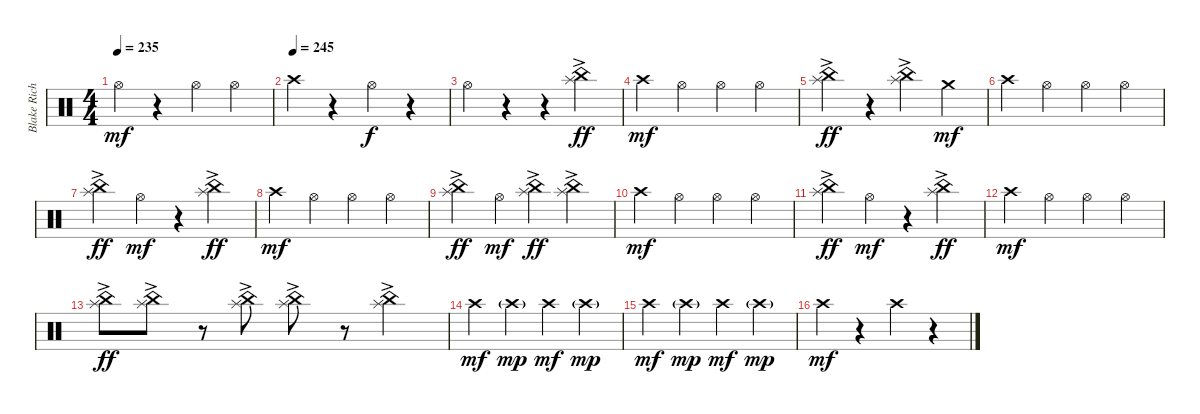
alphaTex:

\track ("Blake Richardson Drums" "Blake Rich") {instrument percussion}
\staff {score}
\articulation defaults
\ts (4 4)
\tempo 235
\clef neutral
\ks c "Hi-Hat (open)".4{dy mf}
r.4 "Hi-Hat (open)".4 "Hi-Hat (open)".4 |
\tempo (245)
"Crash high (hit)".4 r.4 "Hi-Hat (open)".4{dy f} r.4 |
"Hi-Hat (open)".4 r.4 r.4 ("China (hit)" "Splash (hit)"{ac}).4{dy ff} |
"Crash high (hit)".4{dy mf} "Hi-Hat (open)".4 "Hi-Hat (open)".4 "Hi-Hat (open)".4 |
("China (hit)" "Splash (hit)"{ac}).4{dy ff} r.4 ("China (hit)" "Splash (hit)"{ac}).4 "Crash medium (hit)".4{dy mf} |
"Crash high (hit)".4 "Hi-Hat (open)".4 "Hi-Hat (open)".4 "Hi-Hat (open)".4 |
("China (hit)" "Splash (hit)"{ac}).4{dy ff} "Hi-Hat (open)".4{dy mf} r.4 ("China (hit)" "Splash (hit)"{ac}).4{dy ff} |
"Crash high (hit)".4{dy mf} "Hi-Hat (open)".4 "Hi-Hat (open)".4 "Hi-Hat (open)".4 |
("China (hit)" "Splash (hit)"{ac}).4{dy ff} "Hi-Hat (open)".4{dy mf} ("China (hit)" "Splash (hit)"{ac}).4{dy ff} ("China (hit)" "Splash (hit)"{ac}).4 |
"Crash high (hit)".4{dy mf} "Hi-Hat (open)".4 "Hi-Hat (open)".4 "Hi-Hat (open)".4 |
("China (hit)" "Splash (hit)"{ac}).4{dy ff} "Hi-Hat (open)".4{dy mf} r.4 ("China (hit)" "Splash (hit)"{ac}).4{dy ff} |
"Crash high (hit)".4{dy mf} "Hi-Hat (open)".4 "Hi-Hat (open)".4 "Hi-Hat (open)".4 |
("China (hit)" "Splash (hit)"{ac}).8{dy ff} ("China (hit)" "Splash (hit)"{ac}).8 r.8 ("China (hit)" "Splash (hit)"{ac}).8 ("China (hit)" "Splash (hit)"{ac}).8 r.8 ("China (hit)" "Splash (hit)"{ac}).4 |
"Crash high (hit)".4{dy mf} "Crash high (hit)"{g}.4{dy mp} "Crash high (hit)".4{dy mf} "Crash high (hit)"{g}.4{dy mp} |
"Crash high (hit)".4{dy mf} "Crash high (hit)"{g}.4{dy mp} "Crash high (hit)".4{dy mf} "Crash high (hit)"{g}.4{dy mp} |
"Crash high (hit)".4{dy mf} r.4 "Crash high (hit)".4 r.4
